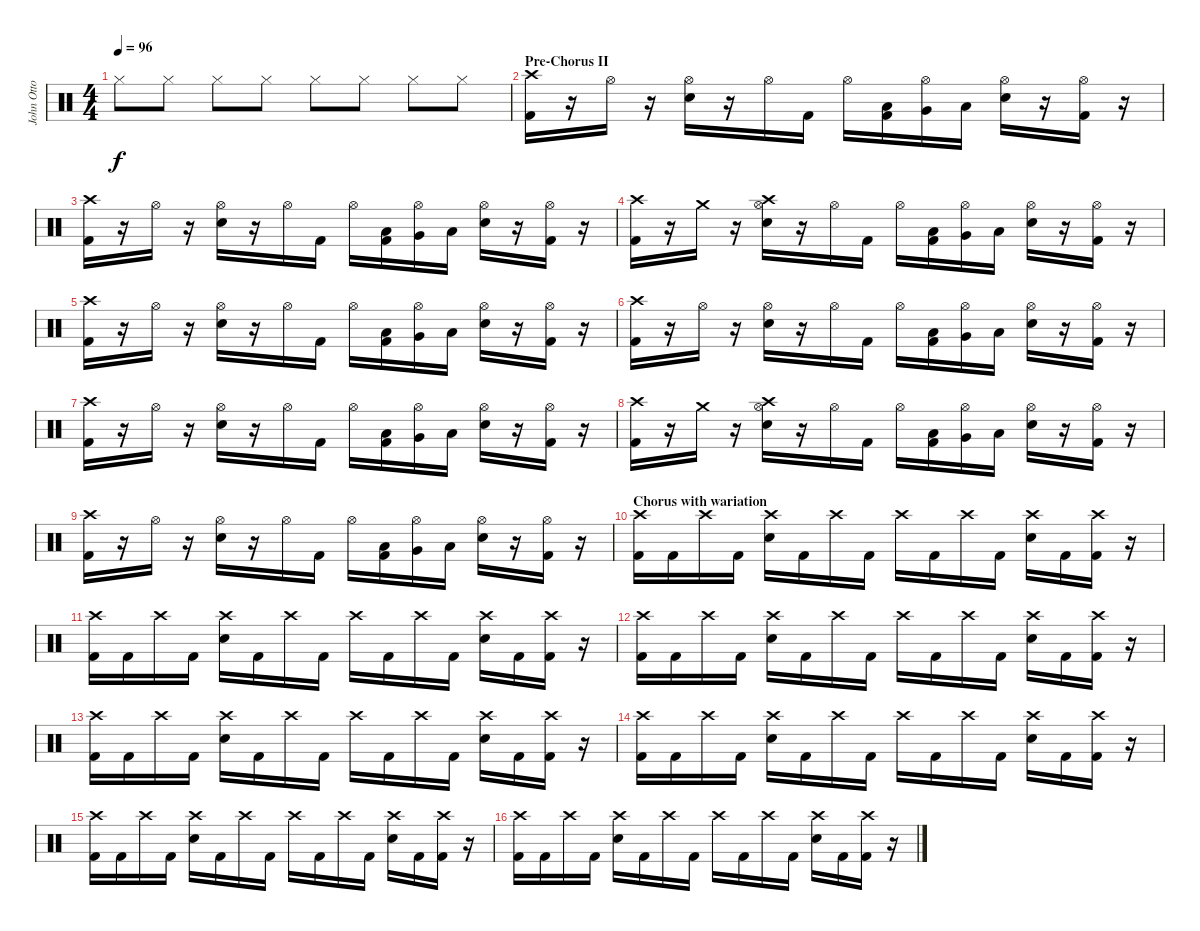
\track ("John Otto - Drums" "John Otto ") {instrument percussion}
\staff {score}
\articulation defaults
\ts (4 4)
\tempo 96
\clef neutral
\ks c "Hi-Hat (closed)".8{dy f} "Hi-Hat (closed)".8 "Hi-Hat (closed)".8 "Hi-Hat (closed)".8 "Hi-Hat (closed)".8 "Hi-Hat (closed)".8 "Hi-Hat (closed)".8 "Hi-Hat (closed)".8
|
\section ("" "Pre-Chorus II")
("Crash high (hit)" "Kick (hit) 2").16 r.16 "Hi-Hat (open)".16 r.16 ("Hi-Hat (open)" "Snare (hit) 2").16 r.16 "Hi-Hat (open)".16 "Kick (hit) 2".16 "Hi-Hat (open)".16 ("Low Tom (hit)" "Kick (hit) 2").16 ("Hi-Hat (open)" "Very Low Tom (hit)").16 "Low Floor Tom (hit)".16 ("Hi-Hat (open)" "Snare (hit) 2").16 r.16 ("Hi-Hat (open)" "Kick (hit) 2").16 r.16 |
("Crash high (hit)" "Kick (hit) 2").16 r.16 "Hi-Hat (open)".16 r.16 ("Hi-Hat (open)" "Snare (hit) 2").16 r.16 "Hi-Hat (open)".16 "Kick (hit) 2".16 "Hi-Hat (open)".16 ("Low Tom (hit)" "Kick (hit) 2").16 ("Hi-Hat (open)" "Very Low Tom (hit)").16 "Low Floor Tom (hit)".16 ("Hi-Hat (open)" "Snare (hit) 2").16 r.16 ("Hi-Hat (open)" "Kick (hit) 2").16 r.16 |
("Crash high (hit)" "Kick (hit) 2").16 r.16 "Crash medium (hit)".16 r.16 ("Crash high (hit)" "Hi-Hat (open)" "Snare (hit) 2").16 r.16 "Hi-Hat (open)".16 "Kick (hit) 2".16 "Hi-Hat (open)".16 ("Low Tom (hit)" "Kick (hit) 2").16 ("Hi-Hat (open)" "Very Low Tom (hit)").16 "Low Floor Tom (hit)".16 ("Hi-Hat (open)" "Snare (hit) 2").16 r.16 ("Hi-Hat (open)" "Kick (hit) 2").16 r.16 |
("Crash high (hit)" "Kick (hit) 2").16 r.16 "Hi-Hat (open)".16 r.16 ("Hi-Hat (open)" "Snare (hit) 2").16 r.16 "Hi-Hat (open)".16 "Kick (hit) 2".16 "Hi-Hat (open)".16 ("Low Tom (hit)" "Kick (hit) 2").16 ("Hi-Hat (open)" "Very Low Tom (hit)").16 "Low Floor Tom (hit)".16 ("Hi-Hat (open)" "Snare (hit) 2").16 r.16 ("Hi-Hat (open)" "Kick (hit) 2").16 r.16 |
("Crash high (hit)" "Kick (hit) 2").16 r.16 "Hi-Hat (open)".16 r.16 ("Hi-Hat (open)" "Snare (hit) 2").16 r.16 "Hi-Hat (open)".16 "Kick (hit) 2".16 "Hi-Hat (open)".16 ("Low Tom (hit)" "Kick (hit) 2").16 ("Hi-Hat (open)" "Very Low Tom (hit)").16 "Low Floor Tom (hit)".16 ("Hi-Hat (open)" "Snare (hit) 2").16 r.16 ("Hi-Hat (open)" "Kick (hit) 2").16 r.16 |
("Crash high (hit)" "Kick (hit) 2").16 r.16 "Hi-Hat (open)".16 r.16 ("Hi-Hat (open)" "Snare (hit) 2").16 r.16 "Hi-Hat (open)".16 "Kick (hit) 2".16 "Hi-Hat (open)".16 ("Low Tom (hit)" "Kick (hit) 2").16 ("Hi-Hat (open)" "Very Low Tom (hit)").16 "Low Floor Tom (hit)".16 ("Hi-Hat (open)" "Snare (hit) 2").16 r.16 ("Hi-Hat (open)" "Kick (hit) 2").16 r.16 |
("Crash high (hit)" "Kick (hit) 2").16 r.16 "Crash medium (hit)".16 r.16 ("Crash high (hit)" "Hi-Hat (open)" "Snare (hit) 2").16 r.16 "Hi-Hat (open)".16 "Kick (hit) 2".16 "Hi-Hat (open)".16 ("Low Tom (hit)" "Kick (hit) 2").16 ("Hi-Hat (open)" "Very Low Tom (hit)").16 "Low Floor Tom (hit)".16 ("Hi-Hat (open)" "Snare (hit) 2").16 r.16 ("Hi-Hat (open)" "Kick (hit) 2").16 r.16 |
("Crash high (hit)" "Kick (hit) 2").16 r.16 "Hi-Hat (open)".16 r.16 ("Hi-Hat (open)" "Snare (hit) 2").16 r.16 "Hi-Hat (open)".16 "Kick (hit) 2".16 "Hi-Hat (open)".16 ("Low Tom (hit)" "Kick (hit) 2").16 ("Hi-Hat (open)" "Very Low Tom (hit)").16 "Low Floor Tom (hit)".16 ("Hi-Hat (open)" "Snare (hit) 2").16 r.16 ("Hi-Hat (open)" "Kick (hit) 2").16 r.16 |
\section ("" "Chorus with wariation")
("Crash high (hit)" "Kick (hit) 2").16 "Kick (hit) 2".16 "Crash high (hit)".16 "Kick (hit) 2".16 ("Crash high (hit)" "Snare (hit) 2").16 "Kick (hit) 2".16 "Crash high (hit)".16 "Kick (hit) 2".16 "Crash high (hit)".16 "Kick (hit) 2".16 "Crash high (hit)".16 "Kick (hit) 2".16 ("Crash high (hit)" "Snare (hit) 2").16 "Kick (hit) 2".16 ("Crash high (hit)" "Kick (hit) 2").16 r.16 |
("Crash high (hit)" "Kick (hit) 2").16 "Kick (hit) 2".16 "Crash high (hit)".16 "Kick (hit) 2".16 ("Crash high (hit)" "Snare (hit) 2").16 "Kick (hit) 2".16 "Crash high (hit)".16 "Kick (hit) 2".16 "Crash high (hit)".16 "Kick (hit) 2".16 "Crash high (hit)".16 "Kick (hit) 2".16 ("Crash high (hit)" "Snare (hit) 2").16 "Kick (hit) 2".16 ("Crash high (hit)" "Kick (hit) 2").16 r.16 |
("Crash high (hit)" "Kick (hit) 2").16 "Kick (hit) 2".16 "Crash high (hit)".16 "Kick (hit) 2".16 ("Crash high (hit)" "Snare (hit) 2").16 "Kick (hit) 2".16 "Crash high (hit)".16 "Kick (hit) 2".16 "Crash high (hit)".16 "Kick (hit) 2".16 "Crash high (hit)".16 "Kick (hit) 2".16 ("Crash high (hit)" "Snare (hit) 2").16 "Kick (hit) 2".16 ("Crash high (hit)" "Kick (hit) 2").16 r.16 |
("Crash high (hit)" "Kick (hit) 2").16 "Kick (hit) 2".16 "Crash high (hit)".16 "Kick (hit) 2".16 ("Crash high (hit)" "Snare (hit) 2").16 "Kick (hit) 2".16 "Crash high (hit)".16 "Kick (hit) 2".16 "Crash high (hit)".16 "Kick (hit) 2".16 "Crash high (hit)".16 "Kick (hit) 2".16 ("Crash high (hit)" "Snare (hit) 2").16 "Kick (hit) 2".16 ("Crash high (hit)" "Kick (hit) 2").16 r.16 |
("Crash high (hit)" "Kick (hit) 2").16 "Kick (hit) 2".16 "Crash high (hit)".16 "Kick (hit) 2".16 ("Crash high (hit)" "Snare (hit) 2").16 "Kick (hit) 2".16 "Crash high (hit)".16 "Kick (hit) 2".16 "Crash high (hit)".16 "Kick (hit) 2".16 "Crash high (hit)".16 "Kick (hit) 2".16 ("Crash high (hit)" "Snare (hit) 2").16 "Kick (hit) 2".16 ("Crash high (hit)" "Kick (hit) 2").16 r.16 |
("Crash high (hit)" "Kick (hit) 2").16 "Kick (hit) 2".16 "Crash high (hit)".16 "Kick (hit) 2".16 ("Crash high (hit)" "Snare (hit) 2").16 "Kick (hit) 2".16 "Crash high (hit)".16 "Kick (hit) 2".16 "Crash high (hit)".16 "Kick (hit) 2".16 "Crash high (hit)".16 "Kick (hit) 2".16 ("Crash high (hit)" "Snare (hit) 2").16 "Kick (hit) 2".16 ("Crash high (hit)" "Kick (hit) 2").16 r.16 |
("Crash high (hit)" "Kick (hit) 2").16 "Kick (hit) 2".16 "Crash high (hit)".16 "Kick (hit) 2".16 ("Crash high (hit)" "Snare (hit) 2").16 "Kick (hit) 2".16 "Crash high (hit)".16 "Kick (hit) 2".16 "Crash high (hit)".16 "Kick (hit) 2".16 "Crash high (hit)".16 "Kick (hit) 2".16 ("Crash high (hit)" "Snare (hit) 2").16 "Kick (hit) 2".16 ("Crash high (hit)" "Kick (hit) 2").16 r.16
